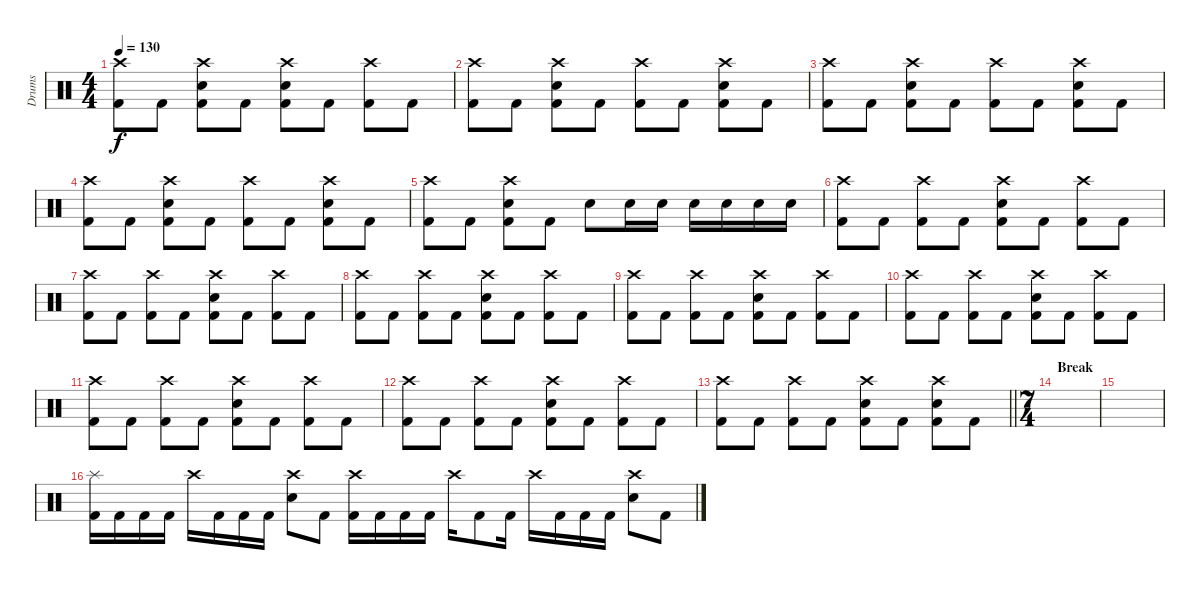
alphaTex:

\track ("Drums" "Drums") {instrument percussion}
\staff {score}
\articulation defaults
\ts (4 4)
\tempo 130
\clef neutral
\ks c
("Crash high (hit)" "Kick (hit) 2").8{dy f} "Kick (hit) 2".8 ("Crash high (hit)" "Electric Snare (hit)" "Kick (hit) 2").8 "Kick (hit) 2".8 ("Crash high (hit)" "Electric Snare (hit)" "Kick (hit) 2").8 "Kick (hit) 2".8 ("Crash high (hit)" "Kick (hit) 2").8 "Kick (hit) 2".8 |
("Crash high (hit)" "Kick (hit) 2").8 "Kick (hit) 2".8 ("Crash high (hit)" "Electric Snare (hit)" "Kick (hit) 2").8 "Kick (hit) 2".8 ("Crash high (hit)" "Kick (hit) 2").8 "Kick (hit) 2".8 ("Crash high (hit)" "Electric Snare (hit)" "Kick (hit) 2").8 "Kick (hit) 2".8 |
("Crash high (hit)" "Kick (hit) 2").8 "Kick (hit) 2".8 ("Crash high (hit)" "Electric Snare (hit)" "Kick (hit) 2").8 "Kick (hit) 2".8 ("Crash high (hit)" "Kick (hit) 2").8 "Kick (hit) 2".8 ("Crash high (hit)" "Electric Snare (hit)" "Kick (hit) 2").8 "Kick (hit) 2".8 |
("Crash high (hit)" "Kick (hit) 2").8 "Kick (hit) 2".8 ("Crash high (hit)" "Electric Snare (hit)" "Kick (hit) 2").8 "Kick (hit) 2".8 ("Crash high (hit)" "Kick (hit) 2").8 "Kick (hit) 2".8 ("Crash high (hit)" "Electric Snare (hit)" "Kick (hit) 2").8 "Kick (hit) 2".8 |
("Crash high (hit)" "Kick (hit) 2").8 "Kick (hit) 2".8 ("Crash high (hit)" "Electric Snare (hit)" "Kick (hit) 2").8 "Kick (hit) 2".8 "Electric Snare (hit)".8 "Electric Snare (hit)".16 "Electric Snare (hit)".16 "Electric Snare (hit)".16 "Electric Snare (hit)".16 "Electric Snare (hit)".16 "Electric Snare (hit)".16 |
("Crash high (hit)" "Kick (hit) 2").8 "Kick (hit) 2".8 ("Crash high (hit)" "Kick (hit) 2").8 "Kick (hit) 2".8 ("Crash high (hit)" "Electric Snare (hit)" "Kick (hit) 2").8 "Kick (hit) 2".8 ("Crash high (hit)" "Kick (hit) 2").8 "Kick (hit) 2".8 |
("Crash high (hit)" "Kick (hit) 2").8 "Kick (hit) 2".8 ("Crash high (hit)" "Kick (hit) 2").8 "Kick (hit) 2".8 ("Crash high (hit)" "Electric Snare (hit)" "Kick (hit) 2").8 "Kick (hit) 2".8 ("Crash high (hit)" "Kick (hit) 2").8 "Kick (hit) 2".8 |
("Crash high (hit)" "Kick (hit) 2").8 "Kick (hit) 2".8 ("Crash high (hit)" "Kick (hit) 2").8 "Kick (hit) 2".8 ("Crash high (hit)" "Electric Snare (hit)" "Kick (hit) 2").8 "Kick (hit) 2".8 ("Crash high (hit)" "Kick (hit) 2").8 "Kick (hit) 2".8 |
("Crash high (hit)" "Kick (hit) 2").8 "Kick (hit) 2".8 ("Crash high (hit)" "Kick (hit) 2").8 "Kick (hit) 2".8 ("Crash high (hit)" "Electric Snare (hit)" "Kick (hit) 2").8 "Kick (hit) 2".8 ("Crash high (hit)" "Kick (hit) 2").8 "Kick (hit) 2".8 |
("Crash high (hit)" "Kick (hit) 2").8 "Kick (hit) 2".8 ("Crash high (hit)" "Kick (hit) 2").8 "Kick (hit) 2".8 ("Crash high (hit)" "Electric Snare (hit)" "Kick (hit) 2").8 "Kick (hit) 2".8 ("Crash high (hit)" "Kick (hit) 2").8 "Kick (hit) 2".8 |
("Crash high (hit)" "Kick (hit) 2").8 "Kick (hit) 2".8 ("Crash high (hit)" "Kick (hit) 2").8 "Kick (hit) 2".8 ("Crash high (hit)" "Electric Snare (hit)" "Kick (hit) 2").8 "Kick (hit) 2".8 ("Crash high (hit)" "Kick (hit) 2").8 "Kick (hit) 2".8 |
("Crash high (hit)" "Kick (hit) 2").8 "Kick (hit) 2".8 ("Crash high (hit)" "Kick (hit) 2").8 "Kick (hit) 2".8 ("Crash high (hit)" "Electric Snare (hit)" "Kick (hit) 2").8 "Kick (hit) 2".8 ("Crash high (hit)" "Kick (hit) 2").8 "Kick (hit) 2".8 |
\barLineRight lightlight
("Crash high (hit)" "Kick (hit) 2").8 "Kick (hit) 2".8 ("Crash high (hit)" "Kick (hit) 2").8 "Kick (hit) 2".8 ("Crash high (hit)" "Electric Snare (hit)" "Kick (hit) 2").8 "Kick (hit) 2".8 ("Crash high (hit)" "Electric Snare (hit)" "Kick (hit) 2").8 "Kick (hit) 2".8 |
\ts (7 4)
\section ("" "Break")
|
|
("Splash (hit)" "Kick (hit) 2").16 "Kick (hit) 2".16 "Kick (hit) 2".16 "Kick (hit) 2".16 "Crash high (hit)".16 "Kick (hit) 2".16 "Kick (hit) 2".16 "Kick (hit) 2".16 ("Crash high (hit)" "Electric Snare (hit)").8 "Kick (hit) 2".8 ("Crash high (hit)" "Kick (hit) 2").16 "Kick (hit) 2".16 "Kick (hit) 2".16 "Kick (hit) 2".16 "Crash high (hit)".16 "Kick (hit) 2".8 "Kick (hit) 2".16 "Crash high (hit)".16 "Kick (hit) 2".16 "Kick (hit) 2".16 "Kick (hit) 2".16 ("Crash high (hit)" "Electric Snare (hit)").8 "Kick (hit) 2".8
